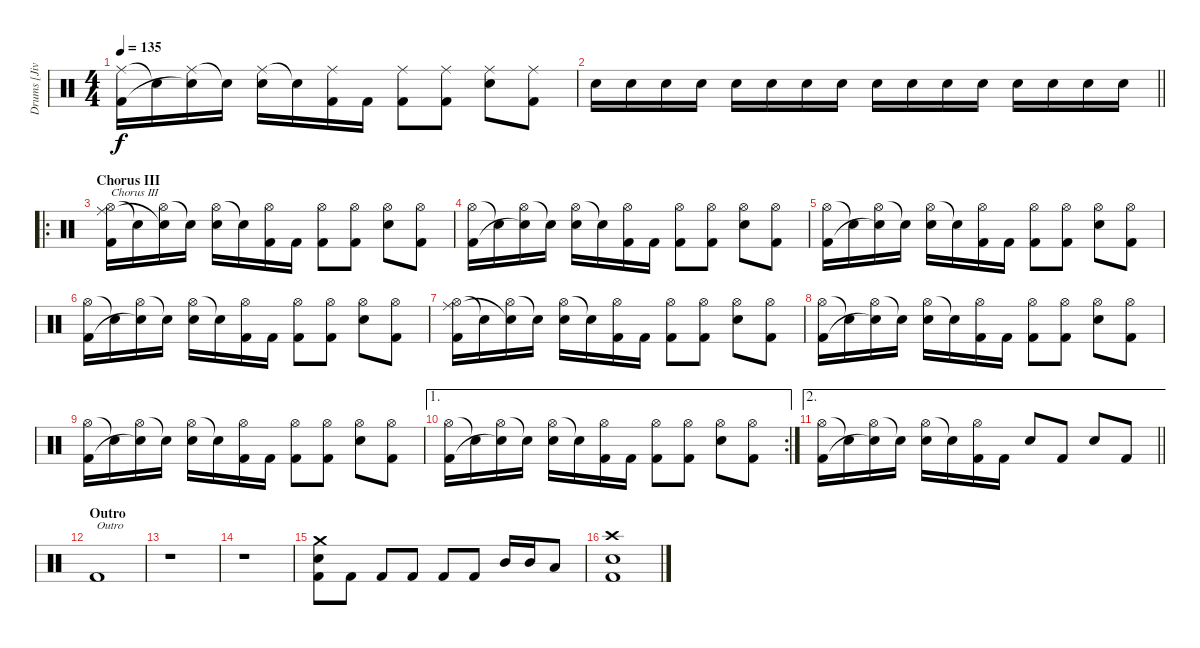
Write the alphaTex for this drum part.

\track ("Drums [Jivarp]" "Drums [Jiv") {instrument percussion}
\staff {score}
\articulation defaults
\ts (4 4)
\tempo 135
\clef neutral
\ks c
("Ride (middle)" "Kick (hit) 2").16{dy f} "Snare (hit)"{t}.16 ("Ride (middle)" "Snare (hit)"{t}).16 "Snare (hit)"{t}.16 ("Ride (middle)" "Electric Snare (hit)").16 "Snare (hit)"{t}.16 ("Ride (middle)" "Kick (hit) 2").16 "Kick (hit) 2".16 ("Ride (middle)" "Kick (hit) 2").8 ("Ride (middle)" "Kick (hit) 2").8 ("Ride (middle)" "Electric Snare (hit)").8 ("Ride (middle)" "Kick (hit) 2").8 |
\barLineRight lightlight "Electric Snare (hit)".16 "Electric Snare (hit)".16 "Electric Snare (hit)".16 "Electric Snare (hit)".16 "Electric Snare (hit)".16 "Electric Snare (hit)".16 "Electric Snare (hit)".16 "Electric Snare (hit)".16 "Electric Snare (hit)".16 "Electric Snare (hit)".16 "Electric Snare (hit)".16 "Electric Snare (hit)".16 "Electric Snare (hit)".16 "Electric Snare (hit)".16 "Electric Snare (hit)".16 "Electric Snare (hit)".16
|
\ro
\section ("" "Chorus III")
("Hi-Hat (open)" "Ride (middle)" "Kick (hit) 2").16{txt "Chorus III"} "Snare (hit)"{t}.16 ("Hi-Hat (open)" "Snare (hit)"{t}).16 "Snare (hit)"{t}.16 ("Hi-Hat (open)" "Electric Snare (hit)").16 "Snare (hit)"{t}.16 ("Hi-Hat (open)" "Kick (hit) 2").16 "Kick (hit) 2".16 ("Hi-Hat (open)" "Kick (hit) 2").8 ("Hi-Hat (open)" "Kick (hit) 2").8 ("Hi-Hat (open)" "Electric Snare (hit)").8 ("Hi-Hat (open)" "Kick (hit) 2").8 |
("Hi-Hat (open)" "Kick (hit) 2").16 "Snare (hit)"{t}.16 ("Hi-Hat (open)" "Snare (hit)"{t}).16 "Snare (hit)"{t}.16 ("Hi-Hat (open)" "Electric Snare (hit)").16 "Snare (hit)"{t}.16 ("Hi-Hat (open)" "Kick (hit) 2").16 "Kick (hit) 2".16 ("Hi-Hat (open)" "Kick (hit) 2").8 ("Hi-Hat (open)" "Kick (hit) 2").8 ("Hi-Hat (open)" "Electric Snare (hit)").8 ("Hi-Hat (open)" "Kick (hit) 2").8 |
("Hi-Hat (open)" "Kick (hit) 2").16 "Snare (hit)"{t}.16 ("Hi-Hat (open)" "Snare (hit)"{t}).16 "Snare (hit)"{t}.16 ("Hi-Hat (open)" "Electric Snare (hit)").16 "Snare (hit)"{t}.16 ("Hi-Hat (open)" "Kick (hit) 2").16 "Kick (hit) 2".16 ("Hi-Hat (open)" "Kick (hit) 2").8 ("Hi-Hat (open)" "Kick (hit) 2").8 ("Hi-Hat (open)" "Electric Snare (hit)").8 ("Hi-Hat (open)" "Kick (hit) 2").8 |
("Hi-Hat (open)" "Kick (hit) 2").16 "Snare (hit)"{t}.16 ("Hi-Hat (open)" "Snare (hit)"{t}).16 "Snare (hit)"{t}.16 ("Hi-Hat (open)" "Electric Snare (hit)").16 "Snare (hit)"{t}.16 ("Hi-Hat (open)" "Kick (hit) 2").16 "Kick (hit) 2".16 ("Hi-Hat (open)" "Kick (hit) 2").8 ("Hi-Hat (open)" "Kick (hit) 2").8 ("Hi-Hat (open)" "Electric Snare (hit)").8 ("Hi-Hat (open)" "Kick (hit) 2").8 |
("Hi-Hat (open)" "Ride (middle)" "Kick (hit) 2").16 "Snare (hit)"{t}.16 ("Hi-Hat (open)" "Snare (hit)"{t}).16 "Snare (hit)"{t}.16 ("Hi-Hat (open)" "Electric Snare (hit)").16 "Snare (hit)"{t}.16 ("Hi-Hat (open)" "Kick (hit) 2").16 "Kick (hit) 2".16 ("Hi-Hat (open)" "Kick (hit) 2").8 ("Hi-Hat (open)" "Kick (hit) 2").8 ("Hi-Hat (open)" "Electric Snare (hit)").8 ("Hi-Hat (open)" "Kick (hit) 2").8 |
("Hi-Hat (open)" "Kick (hit) 2").16 "Snare (hit)"{t}.16 ("Hi-Hat (open)" "Snare (hit)"{t}).16 "Snare (hit)"{t}.16 ("Hi-Hat (open)" "Electric Snare (hit)").16 "Snare (hit)"{t}.16 ("Hi-Hat (open)" "Kick (hit) 2").16 "Kick (hit) 2".16 ("Hi-Hat (open)" "Kick (hit) 2").8 ("Hi-Hat (open)" "Kick (hit) 2").8 ("Hi-Hat (open)" "Electric Snare (hit)").8 ("Hi-Hat (open)" "Kick (hit) 2").8 |
("Hi-Hat (open)" "Kick (hit) 2").16 "Snare (hit)"{t}.16 ("Hi-Hat (open)" "Snare (hit)"{t}).16 "Snare (hit)"{t}.16 ("Hi-Hat (open)" "Electric Snare (hit)").16 "Snare (hit)"{t}.16 ("Hi-Hat (open)" "Kick (hit) 2").16 "Kick (hit) 2".16 ("Hi-Hat (open)" "Kick (hit) 2").8 ("Hi-Hat (open)" "Kick (hit) 2").8 ("Hi-Hat (open)" "Electric Snare (hit)").8 ("Hi-Hat (open)" "Kick (hit) 2").8 |
\ae 1
\rc 2
("Hi-Hat (open)" "Kick (hit) 2").16 "Snare (hit)"{t}.16 ("Hi-Hat (open)" "Snare (hit)"{t}).16 "Snare (hit)"{t}.16 ("Hi-Hat (open)" "Electric Snare (hit)").16 "Snare (hit)"{t}.16 ("Hi-Hat (open)" "Kick (hit) 2").16 "Kick (hit) 2".16 ("Hi-Hat (open)" "Kick (hit) 2").8 ("Hi-Hat (open)" "Kick (hit) 2").8 ("Hi-Hat (open)" "Electric Snare (hit)").8 ("Hi-Hat (open)" "Kick (hit) 2").8 |
\ae 2
\barLineRight lightlight
("Hi-Hat (open)" "Kick (hit) 2").16 "Snare (hit)"{t}.16 ("Hi-Hat (open)" "Snare (hit)"{t}).16 "Snare (hit)"{t}.16 ("Hi-Hat (open)" "Electric Snare (hit)").16 "Snare (hit)"{t}.16 ("Hi-Hat (open)" "Kick (hit) 2").16 "Kick (hit) 2".16 "Electric Snare (hit)".8 "Kick (hit) 2".8 "Electric Snare (hit)".8 "Kick (hit) 2".8 |
\section ("" "Outro")
"Kick (hit) 2".1{txt "Outro"} |
r.1 |
r.1 |
("Crash medium (hit)" "Electric Snare (hit)" "Kick (hit) 2").8 "Kick (hit) 2".8 "Kick (hit) 2".8 "Kick (hit) 2".8 "Kick (hit) 2".8 "Kick (hit) 2".8 "Mid Tom (hit)".16 "Mid Tom (hit)".16 "Low Tom (hit)".8 |
("Crash high (hit)" "Electric Snare (hit)" "Kick (hit) 2").1
